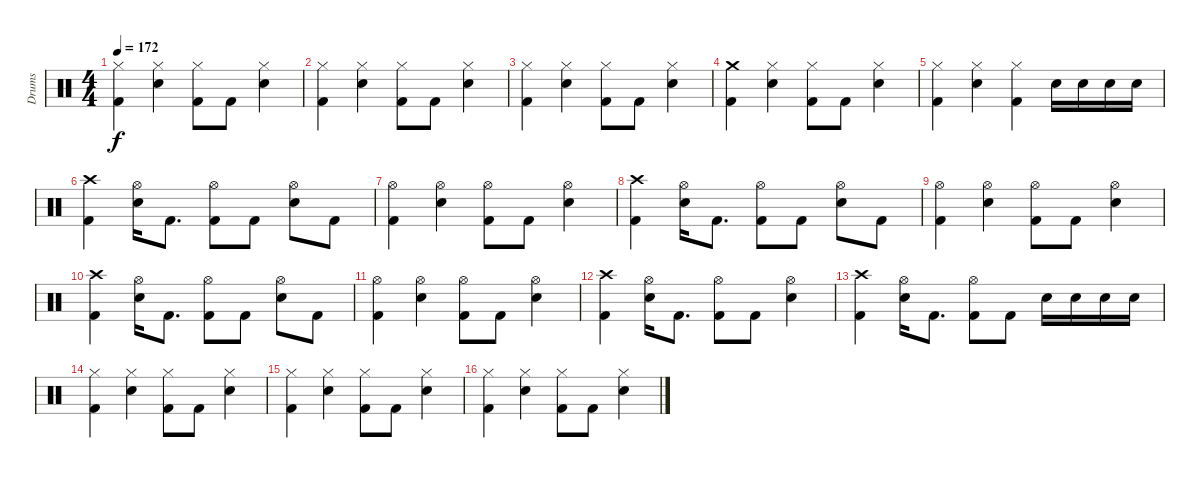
\track ("Drums" "Drums") {instrument percussion}
\staff {score}
\articulation defaults
\ts (4 4)
\tempo 172
\clef neutral
\ks c
("Kick (hit) 2" "Hi-Hat (closed)").4{dy f} ("Snare (hit) 2" "Hi-Hat (closed)").4 ("Kick (hit) 2" "Hi-Hat (closed)").8 "Kick (hit) 2".8 ("Snare (hit) 2" "Hi-Hat (closed)").4 |
("Kick (hit) 2" "Hi-Hat (closed)").4 ("Snare (hit) 2" "Hi-Hat (closed)").4 ("Kick (hit) 2" "Hi-Hat (closed)").8 "Kick (hit) 2".8 ("Snare (hit) 2" "Hi-Hat (closed)").4 |
("Kick (hit) 2" "Hi-Hat (closed)").4 ("Snare (hit) 2" "Hi-Hat (closed)").4 ("Kick (hit) 2" "Hi-Hat (closed)").8 "Kick (hit) 2".8 ("Snare (hit) 2" "Hi-Hat (closed)").4 |
("Kick (hit) 2" "Crash medium (hit)").4 ("Snare (hit) 2" "Hi-Hat (closed)").4 ("Kick (hit) 2" "Hi-Hat (closed)").8 "Kick (hit) 2".8 ("Snare (hit) 2" "Hi-Hat (closed)").4 |
("Kick (hit) 2" "Hi-Hat (closed)").4 ("Snare (hit) 2" "Hi-Hat (closed)").4 ("Kick (hit) 2" "Hi-Hat (closed)").4 "Snare (hit) 2".16 "Snare (hit) 2".16 "Snare (hit) 2".16 "Snare (hit) 2".16 |
("Crash high (hit)" "Kick (hit) 2").4 ("Hi-Hat (open)" "Snare (hit) 2").16 "Kick (hit) 2".8{d} ("Hi-Hat (open)" "Kick (hit) 2").8 "Kick (hit) 2".8 ("Hi-Hat (open)" "Snare (hit) 2").8 "Kick (hit) 2".8 |
("Hi-Hat (open)" "Kick (hit) 2").4 ("Hi-Hat (open)" "Snare (hit) 2").4 ("Hi-Hat (open)" "Kick (hit) 2").8 "Kick (hit) 2".8 ("Hi-Hat (open)" "Snare (hit) 2").4 |
("Crash high (hit)" "Kick (hit) 2").4 ("Hi-Hat (open)" "Snare (hit) 2").16 "Kick (hit) 2".8{d} ("Hi-Hat (open)" "Kick (hit) 2").8 "Kick (hit) 2".8 ("Hi-Hat (open)" "Snare (hit) 2").8 "Kick (hit) 2".8 |
("Hi-Hat (open)" "Kick (hit) 2").4 ("Hi-Hat (open)" "Snare (hit) 2").4 ("Hi-Hat (open)" "Kick (hit) 2").8 "Kick (hit) 2".8 ("Hi-Hat (open)" "Snare (hit) 2").4 |
("Crash high (hit)" "Kick (hit) 2").4 ("Hi-Hat (open)" "Snare (hit) 2").16 "Kick (hit) 2".8{d} ("Hi-Hat (open)" "Kick (hit) 2").8 "Kick (hit) 2".8 ("Hi-Hat (open)" "Snare (hit) 2").8 "Kick (hit) 2".8 |
("Hi-Hat (open)" "Kick (hit) 2").4 ("Hi-Hat (open)" "Snare (hit) 2").4 ("Hi-Hat (open)" "Kick (hit) 2").8 "Kick (hit) 2".8 ("Hi-Hat (open)" "Snare (hit) 2").4 |
("Crash high (hit)" "Kick (hit) 2").4 ("Hi-Hat (open)" "Snare (hit) 2").16 "Kick (hit) 2".8{d} ("Hi-Hat (open)" "Kick (hit) 2").8 "Kick (hit) 2".8 ("Hi-Hat (open)" "Snare (hit) 2").4 |
("Crash high (hit)" "Kick (hit) 2").4 ("Hi-Hat (open)" "Snare (hit) 2").16 "Kick (hit) 2".8{d} ("Hi-Hat (open)" "Kick (hit) 2").8 "Kick (hit) 2".8 "Snare (hit) 2".16 "Snare (hit) 2".16 "Snare (hit) 2".16 "Snare (hit) 2".16 |
("Kick (hit) 2" "Hi-Hat (closed)").4 ("Snare (hit) 2" "Hi-Hat (closed)").4 ("Kick (hit) 2" "Hi-Hat (closed)").8 "Kick (hit) 2".8 ("Snare (hit) 2" "Hi-Hat (closed)").4 |
("Kick (hit) 2" "Hi-Hat (closed)").4 ("Snare (hit) 2" "Hi-Hat (closed)").4 ("Kick (hit) 2" "Hi-Hat (closed)").8 "Kick (hit) 2".8 ("Snare (hit) 2" "Hi-Hat (closed)").4 |
("Kick (hit) 2" "Hi-Hat (closed)").4 ("Snare (hit) 2" "Hi-Hat (closed)").4 ("Kick (hit) 2" "Hi-Hat (closed)").8 "Kick (hit) 2".8 ("Snare (hit) 2" "Hi-Hat (closed)").4
